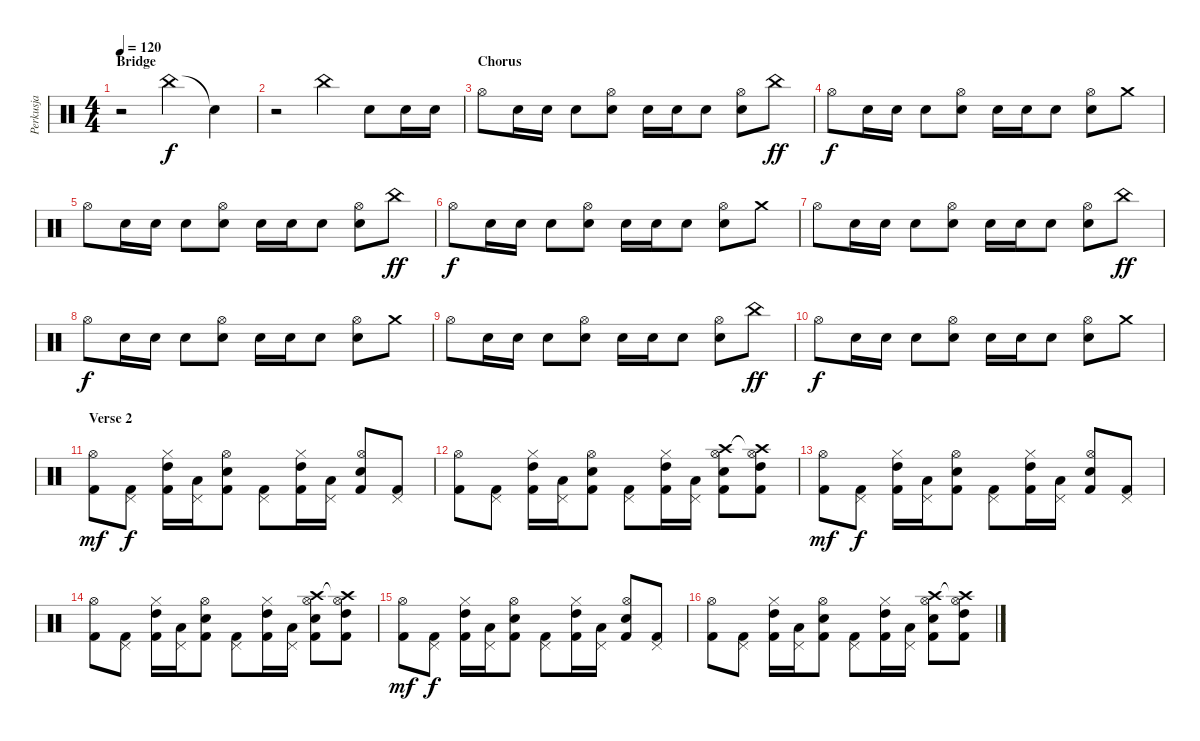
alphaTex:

\track ("Perkusja" "Perkusja") {instrument percussion}
\staff {score}
\articulation defaults
\ts (4 4)
\section ("" "Bridge")
\tempo 120
\clef neutral
\ks c
r.2{dy f} "China (hit)".4 "Snare (hit)"{t}.4 |
r.2 "China (hit)".4 "Snare (hit) 2".8 "Electric Snare (hit)".16 "Snare (hit) 2".16 |
\section ("" "Chorus")
"Hi-Hat (open)".8 "Electric Snare (hit)".16 "Electric Snare (hit)".16 "Snare (hit) 2".8 ("Metronome (bell)" "Hi-Hat (open)").8 "Electric Snare (hit)".16 "Electric Snare (hit)".16 "Snare (hit) 2".8 ("Metronome (bell)" "Hi-Hat (open)").8 "China (hit)".8{dy ff} |
"Hi-Hat (open)".8{dy f} "Electric Snare (hit)".16 "Electric Snare (hit)".16 "Snare (hit) 2".8 ("Metronome (bell)" "Hi-Hat (open)").8 "Electric Snare (hit)".16 "Electric Snare (hit)".16 "Snare (hit) 2".8 ("Metronome (bell)" "Hi-Hat (open)").8 "Crash medium (hit)".8 |
"Hi-Hat (open)".8 "Electric Snare (hit)".16 "Electric Snare (hit)".16 "Snare (hit) 2".8 ("Metronome (bell)" "Hi-Hat (open)").8 "Electric Snare (hit)".16 "Electric Snare (hit)".16 "Snare (hit) 2".8 ("Metronome (bell)" "Hi-Hat (open)").8 "China (hit)".8{dy ff} |
"Hi-Hat (open)".8{dy f} "Electric Snare (hit)".16 "Electric Snare (hit)".16 "Snare (hit) 2".8 ("Metronome (bell)" "Hi-Hat (open)").8 "Electric Snare (hit)".16 "Electric Snare (hit)".16 "Snare (hit) 2".8 ("Metronome (bell)" "Hi-Hat (open)").8 "Crash medium (hit)".8 |
"Hi-Hat (open)".8 "Electric Snare (hit)".16 "Electric Snare (hit)".16 "Snare (hit) 2".8 ("Metronome (bell)" "Hi-Hat (open)").8 "Electric Snare (hit)".16 "Electric Snare (hit)".16 "Snare (hit) 2".8 ("Metronome (bell)" "Hi-Hat (open)").8 "China (hit)".8{dy ff} |
"Hi-Hat (open)".8{dy f} "Electric Snare (hit)".16 "Electric Snare (hit)".16 "Snare (hit) 2".8 ("Metronome (bell)" "Hi-Hat (open)").8 "Electric Snare (hit)".16 "Electric Snare (hit)".16 "Snare (hit) 2".8 ("Metronome (bell)" "Hi-Hat (open)").8 "Crash medium (hit)".8 |
"Hi-Hat (open)".8 "Electric Snare (hit)".16 "Electric Snare (hit)".16 "Snare (hit) 2".8 ("Metronome (bell)" "Hi-Hat (open)").8 "Electric Snare (hit)".16 "Electric Snare (hit)".16 "Snare (hit) 2".8 ("Metronome (bell)" "Hi-Hat (open)").8 "China (hit)".8{dy ff} |
"Hi-Hat (open)".8{dy f} "Electric Snare (hit)".16 "Electric Snare (hit)".16 "Snare (hit) 2".8 ("Metronome (bell)" "Hi-Hat (open)").8 "Electric Snare (hit)".16 "Electric Snare (hit)".16 "Snare (hit) 2".8 ("Metronome (bell)" "Hi-Hat (open)").8 "Crash medium (hit)".8 |
\section ("" "Verse 2")
("Kick (hit) 2" "Hi-Hat (open)").8{dy mf} ("Kick (hit) 2" "Pedal Hi-Hat (hit)").8{dy f} ("Kick (hit) 2" "High Tom (hit)" "Hi-Hat (closed)").16 ("Low Tom (hit)" "Pedal Hi-Hat (hit)").16 ("Kick (hit) 2" "Snare (hit) 2" "Hi-Hat (open)").8 ("Kick (hit) 2" "Pedal Hi-Hat (hit)").8 ("Kick (hit) 2" "High Tom (hit)" "Hi-Hat (closed)").16 ("Low Tom (hit)" "Pedal Hi-Hat (hit)").16 ("Kick (hit) 2" "Snare (hit) 2" "Hi-Hat (open)").8 ("Kick (hit) 2" "Pedal Hi-Hat (hit)").8 |
("Kick (hit) 2" "Hi-Hat (open)").8 ("Kick (hit) 2" "Pedal Hi-Hat (hit)").8 ("Kick (hit) 2" "High Tom (hit)" "Hi-Hat (closed)").16 ("Low Tom (hit)" "Pedal Hi-Hat (hit)").16 ("Kick (hit) 2" "Snare (hit) 2" "Hi-Hat (open)").8 ("Kick (hit) 2" "Pedal Hi-Hat (hit)").8 ("Kick (hit) 2" "High Tom (hit)" "Hi-Hat (closed)").16 ("Low Tom (hit)" "Pedal Hi-Hat (hit)").16 ("Kick (hit) 2" "Snare (hit) 2" "Crash high (hit)" "Hi-Hat (open)").8 ("Kick (hit) 2" "High Tom (hit)" "Crash high (hit)"{t} "Hi-Hat (open)").8 |
("Kick (hit) 2" "Hi-Hat (open)").8{dy mf} ("Kick (hit) 2" "Pedal Hi-Hat (hit)").8{dy f} ("Kick (hit) 2" "High Tom (hit)" "Hi-Hat (closed)").16 ("Low Tom (hit)" "Pedal Hi-Hat (hit)").16 ("Kick (hit) 2" "Snare (hit) 2" "Hi-Hat (open)").8 ("Kick (hit) 2" "Pedal Hi-Hat (hit)").8 ("Kick (hit) 2" "High Tom (hit)" "Hi-Hat (closed)").16 ("Low Tom (hit)" "Pedal Hi-Hat (hit)").16 ("Kick (hit) 2" "Snare (hit) 2" "Hi-Hat (open)").8 ("Kick (hit) 2" "Pedal Hi-Hat (hit)").8 |
("Kick (hit) 2" "Hi-Hat (open)").8 ("Kick (hit) 2" "Pedal Hi-Hat (hit)").8 ("Kick (hit) 2" "High Tom (hit)" "Hi-Hat (closed)").16 ("Low Tom (hit)" "Pedal Hi-Hat (hit)").16 ("Kick (hit) 2" "Snare (hit) 2" "Hi-Hat (open)").8 ("Kick (hit) 2" "Pedal Hi-Hat (hit)").8 ("Kick (hit) 2" "High Tom (hit)" "Hi-Hat (closed)").16 ("Low Tom (hit)" "Pedal Hi-Hat (hit)").16 ("Kick (hit) 2" "Snare (hit) 2" "Crash high (hit)" "Hi-Hat (open)").8 ("Kick (hit) 2" "High Tom (hit)" "Crash high (hit)"{t} "Hi-Hat (open)").8 |
("Kick (hit) 2" "Hi-Hat (open)").8{dy mf} ("Kick (hit) 2" "Pedal Hi-Hat (hit)").8{dy f} ("Kick (hit) 2" "High Tom (hit)" "Hi-Hat (closed)").16 ("Low Tom (hit)" "Pedal Hi-Hat (hit)").16 ("Kick (hit) 2" "Snare (hit) 2" "Hi-Hat (open)").8 ("Kick (hit) 2" "Pedal Hi-Hat (hit)").8 ("Kick (hit) 2" "High Tom (hit)" "Hi-Hat (closed)").16 ("Low Tom (hit)" "Pedal Hi-Hat (hit)").16 ("Kick (hit) 2" "Snare (hit) 2" "Hi-Hat (open)").8 ("Kick (hit) 2" "Pedal Hi-Hat (hit)").8 |
("Kick (hit) 2" "Hi-Hat (open)").8 ("Kick (hit) 2" "Pedal Hi-Hat (hit)").8 ("Kick (hit) 2" "High Tom (hit)" "Hi-Hat (closed)").16 ("Low Tom (hit)" "Pedal Hi-Hat (hit)").16 ("Kick (hit) 2" "Snare (hit) 2" "Hi-Hat (open)").8 ("Kick (hit) 2" "Pedal Hi-Hat (hit)").8 ("Kick (hit) 2" "High Tom (hit)" "Hi-Hat (closed)").16 ("Low Tom (hit)" "Pedal Hi-Hat (hit)").16 ("Kick (hit) 2" "Snare (hit) 2" "Crash high (hit)" "Hi-Hat (open)").8 ("Kick (hit) 2" "High Tom (hit)" "Crash high (hit)"{t} "Hi-Hat (open)").8
